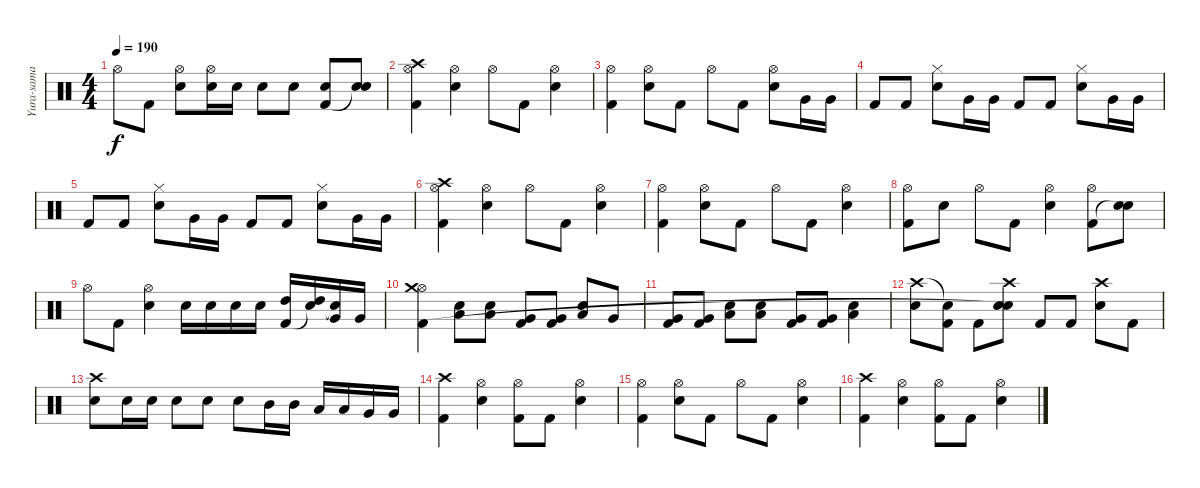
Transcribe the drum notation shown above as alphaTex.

\track ("Yura-sama" "Yura-sama") {instrument percussion}
\staff {score}
\articulation defaults
\ts (4 4)
\tempo 190
\clef neutral
\ks c "Hi-Hat (open)".8{dy f} "Kick (hit) 2".8
("Hi-Hat (open)" "Electric Snare (hit)").8 ("Hi-Hat (open)" "Electric Snare (hit)").16 "Electric Snare (hit)".16 "Electric Snare (hit)".8 "Electric Snare (hit)".8 ("Electric Snare (hit)" "Kick (hit) 2").8 ("Electric Snare (hit)" "Snare (hit)"{t}).8 |
("Hi-Hat (open)" "Crash high (hit)" "Kick (hit) 2").4 ("Hi-Hat (open)" "Electric Snare (hit)").4 "Hi-Hat (open)".8 "Kick (hit) 2".8 ("Hi-Hat (open)" "Electric Snare (hit)").4 |
("Hi-Hat (open)" "Kick (hit) 2").4 ("Hi-Hat (open)" "Electric Snare (hit)").8 "Kick (hit) 2".8 "Hi-Hat (open)".8 "Kick (hit) 2".8 ("Hi-Hat (open)" "Electric Snare (hit)").8 "Very Low Tom (hit)".16 "Very Low Tom (hit)".16 |
"Kick (hit) 2".8 "Kick (hit) 2".8 ("Hi-Hat (closed)" "Electric Snare (hit)").8 "Very Low Tom (hit)".16 "Very Low Tom (hit)".16 "Kick (hit) 2".8 "Kick (hit) 2".8 ("Hi-Hat (closed)" "Electric Snare (hit)").8 "Very Low Tom (hit)".16 "Very Low Tom (hit)".16 |
"Kick (hit) 2".8 "Kick (hit) 2".8 ("Hi-Hat (closed)" "Electric Snare (hit)").8 "Very Low Tom (hit)".16 "Very Low Tom (hit)".16 "Kick (hit) 2".8 "Kick (hit) 2".8 ("Hi-Hat (closed)" "Electric Snare (hit)").8 "Very Low Tom (hit)".16 "Very Low Tom (hit)".16 |
("Hi-Hat (open)" "Crash high (hit)" "Kick (hit) 2").4 ("Hi-Hat (open)" "Electric Snare (hit)").4 "Hi-Hat (open)".8 "Kick (hit) 2".8 ("Hi-Hat (open)" "Electric Snare (hit)").4 |
("Hi-Hat (open)" "Kick (hit) 2").4 ("Hi-Hat (open)" "Electric Snare (hit)").8 "Kick (hit) 2".8 "Hi-Hat (open)".8 "Kick (hit) 2".8 ("Hi-Hat (open)" "Electric Snare (hit)").4 |
("Hi-Hat (open)" "Kick (hit) 2").8 "Electric Snare (hit)".8 "Hi-Hat (open)".8 "Kick (hit) 2".8 ("Hi-Hat (open)" "Electric Snare (hit)").4 ("Hi-Hat (open)" "Kick (hit) 2").8 ("Electric Snare (hit)" "Snare (hit)"{t}).8 |
"Hi-Hat (open)".8 "Kick (hit) 2".8 ("Hi-Hat (open)" "Electric Snare (hit)").4 "Electric Snare (hit)".16 "Electric Snare (hit)".16 "Electric Snare (hit)".16 "Electric Snare (hit)".16 ("High Tom (hit)" "Kick (hit) 2").16 ("High Tom (hit)" "Snare (hit)"{t}).16 ("Very Low Tom (hit)" "Snare (hit)"{t}).16 "Very Low Tom (hit)".16 |
("Hi-Hat (open)" "Crash medium (hit)" "Kick (hit) 2").4 ("Electric Snare (hit)" "Low Tom (hit)").8 ("Electric Snare (hit)" "Low Tom (hit)").8 ("Very Low Tom (hit)" "Kick (hit) 2").8 ("Very Low Tom (hit)" "Kick (hit) 2").8 ("Electric Snare (hit)" "Low Tom (hit)").8 "Very Low Tom (hit)".8 |
("Very Low Tom (hit)" "Kick (hit) 2").8 ("Very Low Tom (hit)" "Kick (hit) 2").8 ("Electric Snare (hit)" "Low Tom (hit)").8 ("Electric Snare (hit)" "Low Tom (hit)").8 ("Very Low Tom (hit)" "Kick (hit) 2").8 ("Very Low Tom (hit)" "Kick (hit) 2").8 ("Electric Snare (hit)" "Low Tom (hit)").4 |
("Crash high (hit)" "Electric Snare (hit)").8 ("Snare (hit)"{t} "Kick (hit) 2").8 "Kick (hit) 2".8 ("Crash high (hit)" "Electric Snare (hit)" "Snare (hit)"{t}).8 "Kick (hit) 2".8 "Kick (hit) 2".8 ("Crash high (hit)" "Electric Snare (hit)").8 "Kick (hit) 2".8 |
("Crash high (hit)" "Electric Snare (hit)").8 "Electric Snare (hit)".16 "Electric Snare (hit)".16 "Electric Snare (hit)".8 "Electric Snare (hit)".8 "Electric Snare (hit)".8 "Mid Tom (hit)".16 "Mid Tom (hit)".16 "Low Tom (hit)".16 "Low Tom (hit)".16 "Very Low Tom (hit)".16 "Very Low Tom (hit)".16 |
("Crash high (hit)" "Kick (hit) 2").4 ("Hi-Hat (open)" "Electric Snare (hit)").4 ("Hi-Hat (open)" "Kick (hit) 2").8 "Kick (hit) 2".8 ("Hi-Hat (open)" "Electric Snare (hit)").4 |
("Hi-Hat (open)" "Kick (hit) 2").4 ("Hi-Hat (open)" "Electric Snare (hit)").8 "Kick (hit) 2".8 "Hi-Hat (open)".8 "Kick (hit) 2".8 ("Hi-Hat (open)" "Electric Snare (hit)").4 |
("Crash high (hit)" "Kick (hit) 2").4 ("Hi-Hat (open)" "Electric Snare (hit)").4 ("Hi-Hat (open)" "Kick (hit) 2").8 "Kick (hit) 2".8 ("Hi-Hat (open)" "Electric Snare (hit)").4
